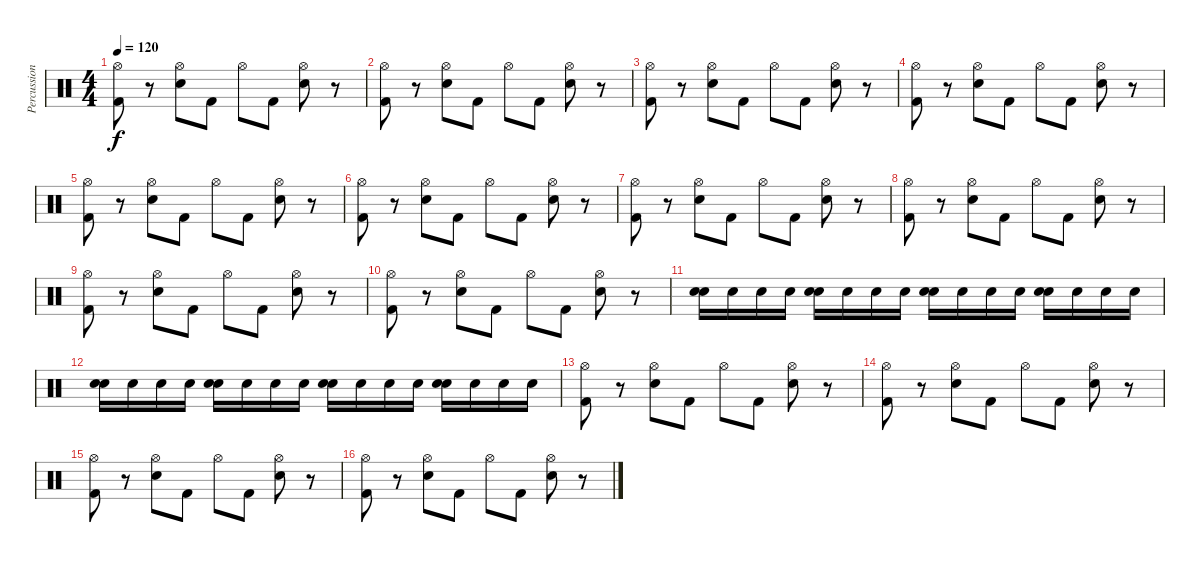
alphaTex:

\track ("Percussion" "Percussion") {instrument percussion}
\staff {score}
\articulation defaults
\ts (4 4)
\tempo 120
\clef neutral
\ks c
("Hi-Hat (open)" "Kick (hit) 2").8{dy f} r.8 ("Hi-Hat (open)" "Snare (hit) 2").8 "Kick (hit) 2".8 "Hi-Hat (open)".8 "Kick (hit) 2".8 ("Hi-Hat (open)" "Snare (hit) 2").8 r.8 |
("Hi-Hat (open)" "Kick (hit) 2").8 r.8 ("Hi-Hat (open)" "Snare (hit) 2").8 "Kick (hit) 2".8 "Hi-Hat (open)".8 "Kick (hit) 2".8 ("Hi-Hat (open)" "Snare (hit) 2").8 r.8 |
("Hi-Hat (open)" "Kick (hit) 2").8 r.8 ("Hi-Hat (open)" "Snare (hit) 2").8 "Kick (hit) 2".8 "Hi-Hat (open)".8 "Kick (hit) 2".8 ("Hi-Hat (open)" "Snare (hit) 2").8 r.8 |
("Hi-Hat (open)" "Kick (hit) 2").8 r.8 ("Hi-Hat (open)" "Snare (hit) 2").8 "Kick (hit) 2".8 "Hi-Hat (open)".8 "Kick (hit) 2".8 ("Hi-Hat (open)" "Snare (hit) 2").8 r.8 |
("Hi-Hat (open)" "Kick (hit) 2").8 r.8 ("Hi-Hat (open)" "Snare (hit) 2").8 "Kick (hit) 2".8 "Hi-Hat (open)".8 "Kick (hit) 2".8 ("Hi-Hat (open)" "Snare (hit) 2").8 r.8 |
("Hi-Hat (open)" "Kick (hit) 2").8 r.8 ("Hi-Hat (open)" "Snare (hit) 2").8 "Kick (hit) 2".8 "Hi-Hat (open)".8 "Kick (hit) 2".8 ("Hi-Hat (open)" "Snare (hit) 2").8 r.8 |
("Hi-Hat (open)" "Kick (hit) 2").8 r.8 ("Hi-Hat (open)" "Snare (hit) 2").8 "Kick (hit) 2".8 "Hi-Hat (open)".8 "Kick (hit) 2".8 ("Hi-Hat (open)" "Snare (hit) 2").8 r.8 |
("Hi-Hat (open)" "Kick (hit) 2").8 r.8 ("Hi-Hat (open)" "Snare (hit) 2").8 "Kick (hit) 2".8 "Hi-Hat (open)".8 "Kick (hit) 2".8 ("Hi-Hat (open)" "Snare (hit) 2").8 r.8 |
("Hi-Hat (open)" "Kick (hit) 2").8 r.8 ("Hi-Hat (open)" "Snare (hit) 2").8 "Kick (hit) 2".8 "Hi-Hat (open)".8 "Kick (hit) 2".8 ("Hi-Hat (open)" "Snare (hit) 2").8 r.8 |
("Hi-Hat (open)" "Kick (hit) 2").8 r.8 ("Hi-Hat (open)" "Snare (hit) 2").8 "Kick (hit) 2".8 "Hi-Hat (open)".8 "Kick (hit) 2".8 ("Hi-Hat (open)" "Snare (hit) 2").8 r.8 |
("Snare (hit) 2" "Snare (hit) 2").16 "Snare (hit) 2".16 "Snare (hit) 2".16 "Snare (hit) 2".16 ("Snare (hit) 2" "Snare (hit) 2").16 "Snare (hit) 2".16 "Snare (hit) 2".16 "Snare (hit) 2".16 ("Snare (hit) 2" "Snare (hit) 2").16 "Snare (hit) 2".16 "Snare (hit) 2".16 "Snare (hit) 2".16 ("Snare (hit) 2" "Snare (hit) 2").16 "Snare (hit) 2".16 "Snare (hit) 2".16 "Snare (hit) 2".16 |
("Snare (hit) 2" "Snare (hit) 2").16 "Snare (hit) 2".16 "Snare (hit) 2".16 "Snare (hit) 2".16 ("Snare (hit) 2" "Snare (hit) 2").16 "Snare (hit) 2".16 "Snare (hit) 2".16 "Snare (hit) 2".16 ("Snare (hit) 2" "Snare (hit) 2").16 "Snare (hit) 2".16 "Snare (hit) 2".16 "Snare (hit) 2".16 ("Snare (hit) 2" "Snare (hit) 2").16 "Snare (hit) 2".16 "Snare (hit) 2".16 "Snare (hit) 2".16 |
("Hi-Hat (open)" "Kick (hit) 2").8 r.8 ("Hi-Hat (open)" "Snare (hit) 2").8 "Kick (hit) 2".8 "Hi-Hat (open)".8 "Kick (hit) 2".8 ("Hi-Hat (open)" "Snare (hit) 2").8 r.8 |
("Hi-Hat (open)" "Kick (hit) 2").8 r.8 ("Hi-Hat (open)" "Snare (hit) 2").8 "Kick (hit) 2".8 "Hi-Hat (open)".8 "Kick (hit) 2".8 ("Hi-Hat (open)" "Snare (hit) 2").8 r.8 |
("Hi-Hat (open)" "Kick (hit) 2").8 r.8 ("Hi-Hat (open)" "Snare (hit) 2").8 "Kick (hit) 2".8 "Hi-Hat (open)".8 "Kick (hit) 2".8 ("Hi-Hat (open)" "Snare (hit) 2").8 r.8 |
("Hi-Hat (open)" "Kick (hit) 2").8 r.8 ("Hi-Hat (open)" "Snare (hit) 2").8 "Kick (hit) 2".8 "Hi-Hat (open)".8 "Kick (hit) 2".8 ("Hi-Hat (open)" "Snare (hit) 2").8 r.8
